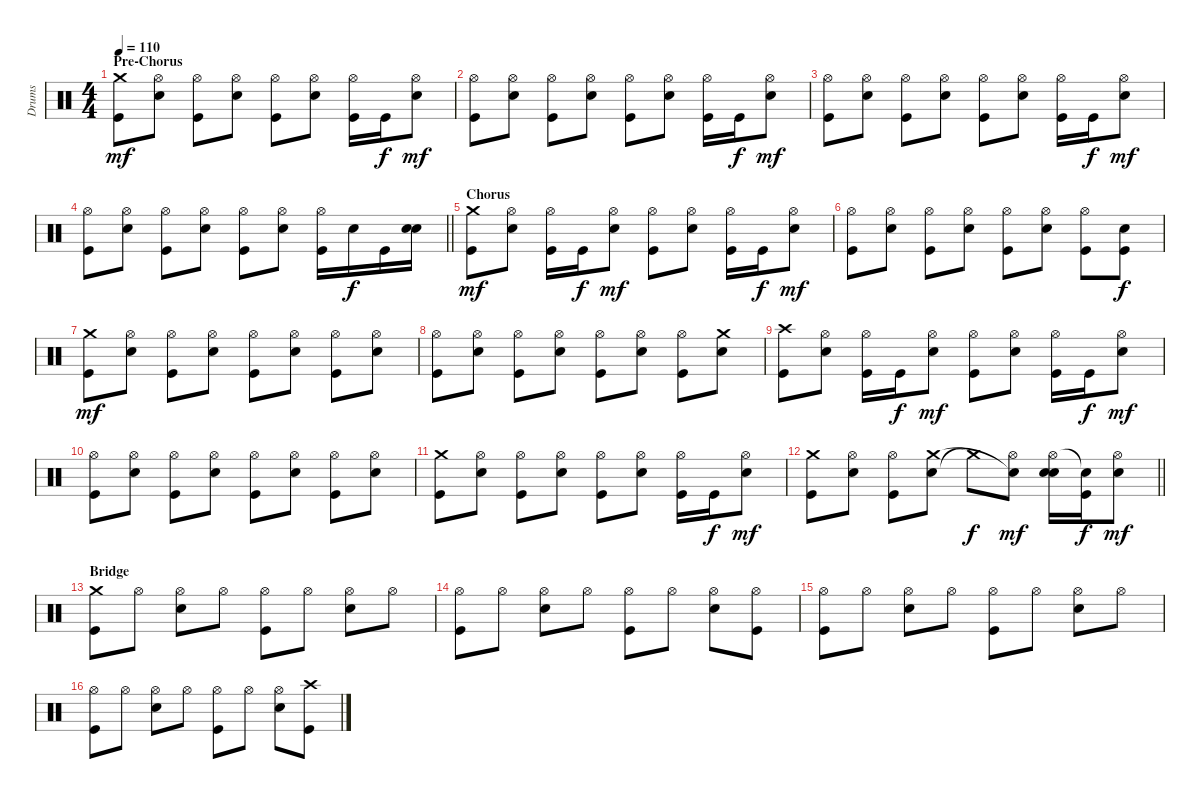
\track ("Drums" "Drums") {instrument percussion}
\staff {score}
\articulation defaults
\ts (4 4)
\section ("" "Pre-Chorus")
\tempo 110
\clef neutral
\ks c
("Kick (hit)" "Crash medium (hit)").8{dy mf} ("Electric Snare (hit)" "Hi-Hat (open)").8 ("Kick (hit)" "Hi-Hat (open)").8 ("Electric Snare (hit)" "Hi-Hat (open)").8 ("Kick (hit)" "Hi-Hat (open)").8 ("Electric Snare (hit)" "Hi-Hat (open)").8 ("Kick (hit)" "Hi-Hat (open)").16 "Kick (hit)".16{dy f} ("Electric Snare (hit)" "Hi-Hat (open)").8{dy mf} |
("Kick (hit)" "Hi-Hat (open)").8 ("Electric Snare (hit)" "Hi-Hat (open)").8 ("Kick (hit)" "Hi-Hat (open)").8 ("Electric Snare (hit)" "Hi-Hat (open)").8 ("Kick (hit)" "Hi-Hat (open)").8 ("Electric Snare (hit)" "Hi-Hat (open)").8 ("Kick (hit)" "Hi-Hat (open)").16 "Kick (hit)".16{dy f} ("Electric Snare (hit)" "Hi-Hat (open)").8{dy mf} |
("Kick (hit)" "Hi-Hat (open)").8 ("Electric Snare (hit)" "Hi-Hat (open)").8 ("Kick (hit)" "Hi-Hat (open)").8 ("Electric Snare (hit)" "Hi-Hat (open)").8 ("Kick (hit)" "Hi-Hat (open)").8 ("Electric Snare (hit)" "Hi-Hat (open)").8 ("Kick (hit)" "Hi-Hat (open)").16 "Kick (hit)".16{dy f} ("Electric Snare (hit)" "Hi-Hat (open)").8{dy mf} |
\barLineRight lightlight
("Kick (hit)" "Hi-Hat (open)").8 ("Electric Snare (hit)" "Hi-Hat (open)").8 ("Kick (hit)" "Hi-Hat (open)").8 ("Electric Snare (hit)" "Hi-Hat (open)").8 ("Kick (hit)" "Hi-Hat (open)").8 ("Electric Snare (hit)" "Hi-Hat (open)").8 ("Kick (hit)" "Hi-Hat (open)").16 "Electric Snare (hit)".16{dy f} "Kick (hit)".16 ("Snare (hit) 2" "Electric Snare (hit)").16 |
\section ("" "Chorus")
("Kick (hit)" "Crash medium (hit)").8{dy mf} ("Electric Snare (hit)" "Hi-Hat (open)").8 ("Kick (hit)" "Hi-Hat (open)").16 "Kick (hit)".16{dy f} ("Electric Snare (hit)" "Hi-Hat (open)").8{dy mf} ("Kick (hit)" "Hi-Hat (open)").8 ("Electric Snare (hit)" "Hi-Hat (open)").8 ("Kick (hit)" "Hi-Hat (open)").16 "Kick (hit)".16{dy f} ("Electric Snare (hit)" "Hi-Hat (open)").8{dy mf} |
("Kick (hit)" "Hi-Hat (open)").8 ("Electric Snare (hit)" "Hi-Hat (open)").8 ("Kick (hit)" "Hi-Hat (open)").8 ("Electric Snare (hit)" "Hi-Hat (open)").8 ("Kick (hit)" "Hi-Hat (open)").8 ("Electric Snare (hit)" "Hi-Hat (open)").8 ("Kick (hit)" "Hi-Hat (open)").8 ("Kick (hit)" "Electric Snare (hit)").8{dy f} |
("Kick (hit)" "Crash medium (hit)").8{dy mf} ("Electric Snare (hit)" "Hi-Hat (open)").8 ("Kick (hit)" "Hi-Hat (open)").8 ("Electric Snare (hit)" "Hi-Hat (open)").8 ("Kick (hit)" "Hi-Hat (open)").8 ("Electric Snare (hit)" "Hi-Hat (open)").8 ("Kick (hit)" "Hi-Hat (open)").8 ("Electric Snare (hit)" "Hi-Hat (open)").8 |
("Kick (hit)" "Hi-Hat (open)").8 ("Electric Snare (hit)" "Hi-Hat (open)").8 ("Kick (hit)" "Hi-Hat (open)").8 ("Electric Snare (hit)" "Hi-Hat (open)").8 ("Kick (hit)" "Hi-Hat (open)").8 ("Electric Snare (hit)" "Hi-Hat (open)").8 ("Kick (hit)" "Hi-Hat (open)").8 ("Electric Snare (hit)" "Crash medium (hit)").8 |
("Kick (hit)" "Crash high (hit)").8 ("Electric Snare (hit)" "Hi-Hat (open)").8 ("Kick (hit)" "Hi-Hat (open)").16 "Kick (hit)".16{dy f} ("Electric Snare (hit)" "Hi-Hat (open)").8{dy mf} ("Kick (hit)" "Hi-Hat (open)").8 ("Electric Snare (hit)" "Hi-Hat (open)").8 ("Kick (hit)" "Hi-Hat (open)").16 "Kick (hit)".16{dy f} ("Electric Snare (hit)" "Hi-Hat (open)").8{dy mf} |
("Kick (hit)" "Hi-Hat (open)").8 ("Electric Snare (hit)" "Hi-Hat (open)").8 ("Kick (hit)" "Hi-Hat (open)").8 ("Electric Snare (hit)" "Hi-Hat (open)").8 ("Kick (hit)" "Hi-Hat (open)").8 ("Electric Snare (hit)" "Hi-Hat (open)").8 ("Kick (hit)" "Hi-Hat (open)").8 ("Electric Snare (hit)" "Hi-Hat (open)").8 |
("Kick (hit)" "Crash medium (hit)").8 ("Electric Snare (hit)" "Hi-Hat (open)").8 ("Kick (hit)" "Hi-Hat (open)").8 ("Electric Snare (hit)" "Hi-Hat (open)").8 ("Kick (hit)" "Hi-Hat (open)").8 ("Electric Snare (hit)" "Hi-Hat (open)").8 ("Kick (hit)" "Hi-Hat (open)").16 "Kick (hit)".16{dy f} ("Electric Snare (hit)" "Hi-Hat (open)").8{dy mf} |
\barLineRight lightlight
("Kick (hit)" "Crash medium (hit)").8 ("Electric Snare (hit)" "Hi-Hat (open)").8 ("Kick (hit)" "Hi-Hat (open)").8 ("Electric Snare (hit)" "Crash medium (hit)").8 "Crash medium (hit)"{t}.8{dy f} ("Hi-Hat (open)" "Snare (hit)"{t}).8{dy mf} ("Electric Snare (hit)" "Hi-Hat (open)" "Snare (hit)").16 ("Kick (hit)" "Snare (hit)"{t}).16{dy f} ("Snare (hit) 2" "Hi-Hat (open)").8{dy mf} |
\section ("" "Bridge")
("Kick (hit)" "Crash medium (hit)").8 "Hi-Hat (open)".8 ("Electric Snare (hit)" "Hi-Hat (open)").8 "Hi-Hat (open)".8 ("Kick (hit)" "Hi-Hat (open)").8 "Hi-Hat (open)".8 ("Electric Snare (hit)" "Hi-Hat (open)").8 "Hi-Hat (open)".8 |
("Kick (hit)" "Hi-Hat (open)").8 "Hi-Hat (open)".8 ("Electric Snare (hit)" "Hi-Hat (open)").8 "Hi-Hat (open)".8 ("Kick (hit)" "Hi-Hat (open)").8 "Hi-Hat (open)".8 ("Electric Snare (hit)" "Hi-Hat (open)").8 ("Kick (hit)" "Hi-Hat (open)").8 |
("Kick (hit)" "Hi-Hat (open)").8 "Hi-Hat (open)".8 ("Electric Snare (hit)" "Hi-Hat (open)").8 "Hi-Hat (open)".8 ("Kick (hit)" "Hi-Hat (open)").8 "Hi-Hat (open)".8 ("Electric Snare (hit)" "Hi-Hat (open)").8 "Hi-Hat (open)".8 |
("Kick (hit)" "Hi-Hat (open)").8 "Hi-Hat (open)".8 ("Electric Snare (hit)" "Hi-Hat (open)").8 "Hi-Hat (open)".8 ("Kick (hit)" "Hi-Hat (open)").8 "Hi-Hat (open)".8 ("Electric Snare (hit)" "Hi-Hat (open)").8 ("Kick (hit)" "Crash high (hit)").8
